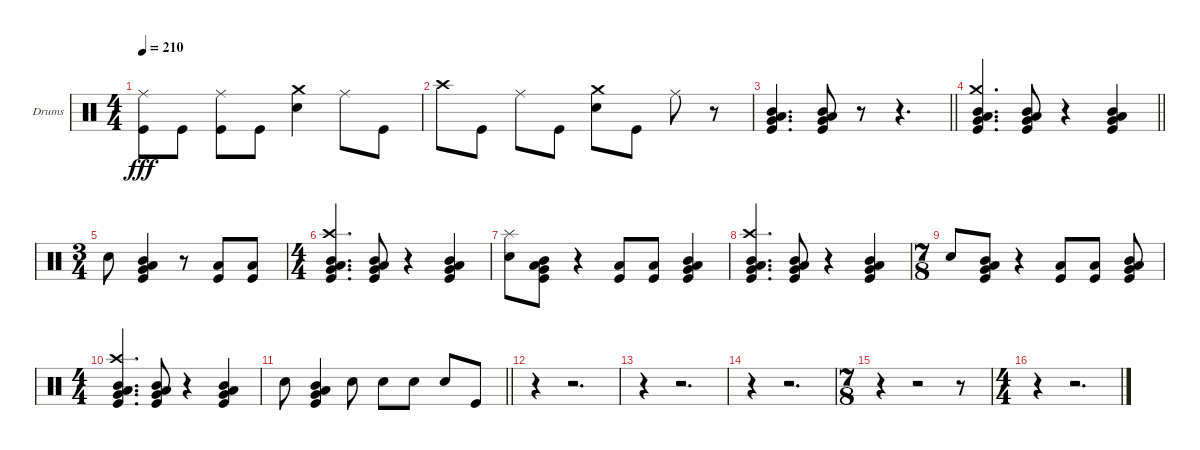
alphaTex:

\bracketExtendMode groupsimilarinstruments
\firstSystemTrackNameOrientation horizontal
\otherSystemsTrackNameOrientation horizontal
\track ("Drumkit" "Drums") {instrument percussion}
\staff {score}
\articulation defaults
\ts (4 4)
\tempo 210
\clef neutral
\ks c
("Ride (middle)" "Kick (hit)").8{dy fff} "Kick (hit)".8 ("Ride (middle)" "Kick (hit)").8 "Kick (hit)".8 ("Crash medium (hit)" "Snare (hit) 2").4 "Ride (middle)".8 "Kick (hit)".8 |
"Crash high (hit)".8 "Kick (hit)".8 "Ride (middle)".8 "Kick (hit)".8 ("Crash medium (hit)" "Snare (hit) 2").8 "Kick (hit)".8 "Ride (middle)".8 r.8 |
\barLineRight lightlight
("Mid Tom (hit)" "Very Low Tom (hit)" "Low Tom (hit)" "Kick (hit)").4{d} ("Mid Tom (hit)" "Very Low Tom (hit)" "Low Tom (hit)" "Kick (hit)").8 r.8 r.4{d} |
\barLineRight lightlight
("Crash medium (hit)" "Mid Tom (hit)" "Very Low Tom (hit)" "Low Tom (hit)" "Kick (hit)").4{d} ("Mid Tom (hit)" "Very Low Tom (hit)" "Low Tom (hit)" "Kick (hit)").8 r.4 ("Mid Tom (hit)" "Very Low Tom (hit)" "Low Tom (hit)" "Kick (hit)").4 |
\ts (3 4)
\beaming (8 2 2 2 2)
"Snare (hit) 2".8 ("Mid Tom (hit)" "Very Low Tom (hit)" "Low Tom (hit)" "Kick (hit)").4 r.8 ("Low Tom (hit)" "Kick (hit)").8 ("Low Tom (hit)" "Kick (hit)").8 |
\ts (4 4)
\beaming (8 2 2 2 2)
("Crash high (hit)" "Very Low Tom (hit)" "Mid Tom (hit)" "Low Tom (hit)" "Kick (hit)").4{d} ("Very Low Tom (hit)" "Mid Tom (hit)" "Low Tom (hit)" "Kick (hit)").8 r.4 ("Very Low Tom (hit)" "Mid Tom (hit)" "Low Tom (hit)" "Kick (hit)").4 |
("Splash (hit)" "Snare (hit) 2").8 ("Very Low Tom (hit)" "Mid Tom (hit)" "Low Tom (hit)" "Kick (hit)").8 r.4 ("Low Tom (hit)" "Kick (hit)").8 ("Low Tom (hit)" "Kick (hit)").8 ("Very Low Tom (hit)" "Mid Tom (hit)" "Low Tom (hit)" "Kick (hit)").4 |
("Crash high (hit)" "Very Low Tom (hit)" "Mid Tom (hit)" "Low Tom (hit)" "Kick (hit)").4{d} ("Very Low Tom (hit)" "Mid Tom (hit)" "Low Tom (hit)" "Kick (hit)").8 r.4 ("Very Low Tom (hit)" "Mid Tom (hit)" "Low Tom (hit)" "Kick (hit)").4 |
\ts (7 8)
\beaming (8 2 2 2 2)
"Snare (hit) 2".8 ("Very Low Tom (hit)" "Mid Tom (hit)" "Low Tom (hit)" "Kick (hit)").8 r.4 ("Low Tom (hit)" "Kick (hit)").8 ("Low Tom (hit)" "Kick (hit)").8 ("Very Low Tom (hit)" "Mid Tom (hit)" "Low Tom (hit)" "Kick (hit)").8 |
\ts (4 4)
\beaming (8 2 2 2 2)
("Crash high (hit)" "Very Low Tom (hit)" "Mid Tom (hit)" "Low Tom (hit)" "Kick (hit)").4{d} ("Very Low Tom (hit)" "Mid Tom (hit)" "Low Tom (hit)" "Kick (hit)").8 r.4 ("Very Low Tom (hit)" "Mid Tom (hit)" "Low Tom (hit)" "Kick (hit)").4 |
\barLineRight lightlight "Snare (hit) 2".8
("Very Low Tom (hit)" "Mid Tom (hit)" "Low Tom (hit)" "Kick (hit)").4 "Snare (hit) 2".8 "Snare (hit) 2".8 "Snare (hit) 2".8 "Snare (hit) 2".8 "Kick (hit)".8 |
r.4 r.2{d} |
r.4 r.2{d} |
r.4 r.2{d} |
\ts (7 8)
\beaming (8 2 2 2 2)
r.4 r.2 r.8 |
\ts (4 4)
\beaming (8 2 2 2 2)
r.4 r.2{d}
